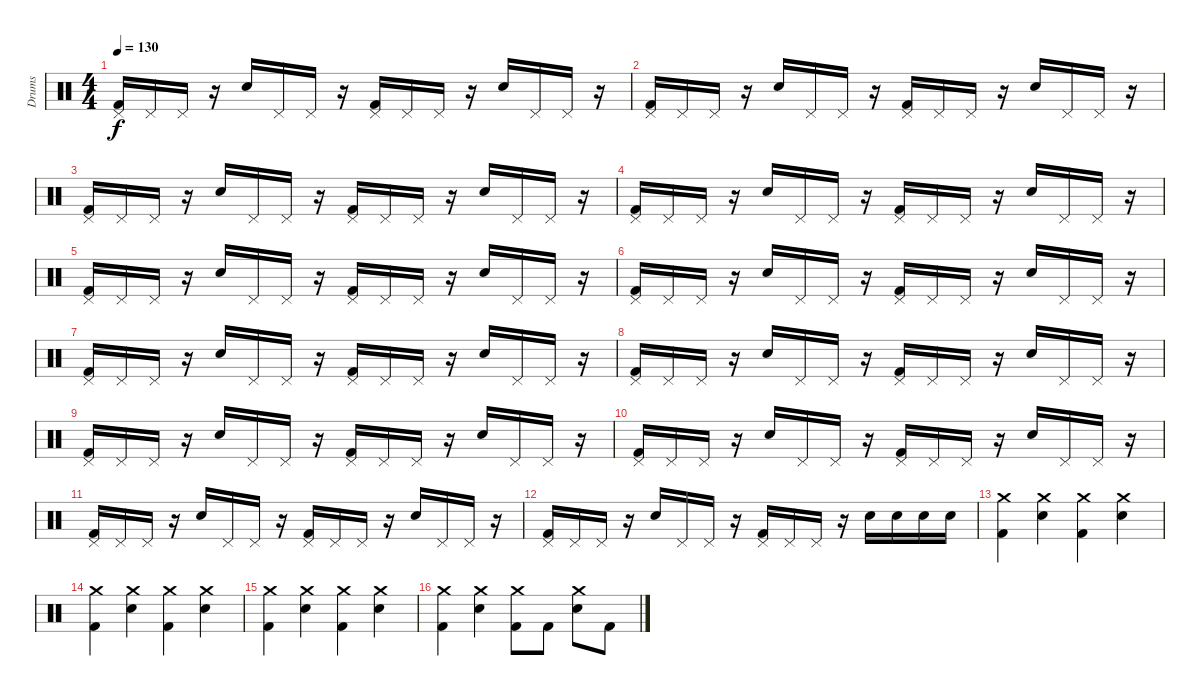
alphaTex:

\track ("Drums" "Drums") {instrument percussion}
\staff {score}
\articulation defaults
\ts (4 4)
\tempo 130
\clef neutral
\ks c
("Pedal Hi-Hat (hit)" "Kick (hit) 2").16{dy f} "Pedal Hi-Hat (hit)".16 "Pedal Hi-Hat (hit)".16 r.16 "Electric Snare (hit)".16 "Pedal Hi-Hat (hit)".16 "Pedal Hi-Hat (hit)".16 r.16 ("Pedal Hi-Hat (hit)" "Kick (hit) 2").16 "Pedal Hi-Hat (hit)".16 "Pedal Hi-Hat (hit)".16 r.16 "Electric Snare (hit)".16 "Pedal Hi-Hat (hit)".16 "Pedal Hi-Hat (hit)".16 r.16 |
("Pedal Hi-Hat (hit)" "Kick (hit) 2").16 "Pedal Hi-Hat (hit)".16 "Pedal Hi-Hat (hit)".16 r.16 "Electric Snare (hit)".16 "Pedal Hi-Hat (hit)".16 "Pedal Hi-Hat (hit)".16 r.16 ("Pedal Hi-Hat (hit)" "Kick (hit) 2").16 "Pedal Hi-Hat (hit)".16 "Pedal Hi-Hat (hit)".16 r.16 "Electric Snare (hit)".16 "Pedal Hi-Hat (hit)".16 "Pedal Hi-Hat (hit)".16 r.16 |
("Pedal Hi-Hat (hit)" "Kick (hit) 2").16 "Pedal Hi-Hat (hit)".16 "Pedal Hi-Hat (hit)".16 r.16 "Electric Snare (hit)".16 "Pedal Hi-Hat (hit)".16 "Pedal Hi-Hat (hit)".16 r.16 ("Pedal Hi-Hat (hit)" "Kick (hit) 2").16 "Pedal Hi-Hat (hit)".16 "Pedal Hi-Hat (hit)".16 r.16 "Electric Snare (hit)".16 "Pedal Hi-Hat (hit)".16 "Pedal Hi-Hat (hit)".16 r.16 |
("Pedal Hi-Hat (hit)" "Kick (hit) 2").16 "Pedal Hi-Hat (hit)".16 "Pedal Hi-Hat (hit)".16 r.16 "Electric Snare (hit)".16 "Pedal Hi-Hat (hit)".16 "Pedal Hi-Hat (hit)".16 r.16 ("Pedal Hi-Hat (hit)" "Kick (hit) 2").16 "Pedal Hi-Hat (hit)".16 "Pedal Hi-Hat (hit)".16 r.16 "Electric Snare (hit)".16 "Pedal Hi-Hat (hit)".16 "Pedal Hi-Hat (hit)".16 r.16 |
("Pedal Hi-Hat (hit)" "Kick (hit) 2").16 "Pedal Hi-Hat (hit)".16 "Pedal Hi-Hat (hit)".16 r.16 "Electric Snare (hit)".16 "Pedal Hi-Hat (hit)".16 "Pedal Hi-Hat (hit)".16 r.16 ("Pedal Hi-Hat (hit)" "Kick (hit) 2").16 "Pedal Hi-Hat (hit)".16 "Pedal Hi-Hat (hit)".16 r.16 "Electric Snare (hit)".16 "Pedal Hi-Hat (hit)".16 "Pedal Hi-Hat (hit)".16 r.16 |
("Pedal Hi-Hat (hit)" "Kick (hit) 2").16 "Pedal Hi-Hat (hit)".16 "Pedal Hi-Hat (hit)".16 r.16 "Electric Snare (hit)".16 "Pedal Hi-Hat (hit)".16 "Pedal Hi-Hat (hit)".16 r.16 ("Pedal Hi-Hat (hit)" "Kick (hit) 2").16 "Pedal Hi-Hat (hit)".16 "Pedal Hi-Hat (hit)".16 r.16 "Electric Snare (hit)".16 "Pedal Hi-Hat (hit)".16 "Pedal Hi-Hat (hit)".16 r.16 |
("Pedal Hi-Hat (hit)" "Kick (hit) 2").16 "Pedal Hi-Hat (hit)".16 "Pedal Hi-Hat (hit)".16 r.16 "Electric Snare (hit)".16 "Pedal Hi-Hat (hit)".16 "Pedal Hi-Hat (hit)".16 r.16 ("Pedal Hi-Hat (hit)" "Kick (hit) 2").16 "Pedal Hi-Hat (hit)".16 "Pedal Hi-Hat (hit)".16 r.16 "Electric Snare (hit)".16 "Pedal Hi-Hat (hit)".16 "Pedal Hi-Hat (hit)".16 r.16 |
("Pedal Hi-Hat (hit)" "Kick (hit) 2").16 "Pedal Hi-Hat (hit)".16 "Pedal Hi-Hat (hit)".16 r.16 "Electric Snare (hit)".16 "Pedal Hi-Hat (hit)".16 "Pedal Hi-Hat (hit)".16 r.16 ("Pedal Hi-Hat (hit)" "Kick (hit) 2").16 "Pedal Hi-Hat (hit)".16 "Pedal Hi-Hat (hit)".16 r.16 "Electric Snare (hit)".16 "Pedal Hi-Hat (hit)".16 "Pedal Hi-Hat (hit)".16 r.16 |
("Pedal Hi-Hat (hit)" "Kick (hit) 2").16 "Pedal Hi-Hat (hit)".16 "Pedal Hi-Hat (hit)".16 r.16 "Electric Snare (hit)".16 "Pedal Hi-Hat (hit)".16 "Pedal Hi-Hat (hit)".16 r.16 ("Pedal Hi-Hat (hit)" "Kick (hit) 2").16 "Pedal Hi-Hat (hit)".16 "Pedal Hi-Hat (hit)".16 r.16 "Electric Snare (hit)".16 "Pedal Hi-Hat (hit)".16 "Pedal Hi-Hat (hit)".16 r.16 |
("Pedal Hi-Hat (hit)" "Kick (hit) 2").16 "Pedal Hi-Hat (hit)".16 "Pedal Hi-Hat (hit)".16 r.16 "Electric Snare (hit)".16 "Pedal Hi-Hat (hit)".16 "Pedal Hi-Hat (hit)".16 r.16 ("Pedal Hi-Hat (hit)" "Kick (hit) 2").16 "Pedal Hi-Hat (hit)".16 "Pedal Hi-Hat (hit)".16 r.16 "Electric Snare (hit)".16 "Pedal Hi-Hat (hit)".16 "Pedal Hi-Hat (hit)".16 r.16 |
("Pedal Hi-Hat (hit)" "Kick (hit) 2").16 "Pedal Hi-Hat (hit)".16 "Pedal Hi-Hat (hit)".16 r.16 "Electric Snare (hit)".16 "Pedal Hi-Hat (hit)".16 "Pedal Hi-Hat (hit)".16 r.16 ("Pedal Hi-Hat (hit)" "Kick (hit) 2").16 "Pedal Hi-Hat (hit)".16 "Pedal Hi-Hat (hit)".16 r.16 "Electric Snare (hit)".16 "Pedal Hi-Hat (hit)".16 "Pedal Hi-Hat (hit)".16 r.16 |
("Pedal Hi-Hat (hit)" "Kick (hit) 2").16 "Pedal Hi-Hat (hit)".16 "Pedal Hi-Hat (hit)".16 r.16 "Electric Snare (hit)".16 "Pedal Hi-Hat (hit)".16 "Pedal Hi-Hat (hit)".16 r.16 ("Pedal Hi-Hat (hit)" "Kick (hit) 2").16 "Pedal Hi-Hat (hit)".16 "Pedal Hi-Hat (hit)".16 r.16 "Electric Snare (hit)".16 "Electric Snare (hit)".16 "Electric Snare (hit)".16 "Electric Snare (hit)".16 |
("Crash medium (hit)" "Kick (hit) 2").4 ("Crash medium (hit)" "Electric Snare (hit)").4 ("Crash medium (hit)" "Kick (hit) 2").4 ("Crash medium (hit)" "Electric Snare (hit)").4 |
("Crash medium (hit)" "Kick (hit) 2").4 ("Crash medium (hit)" "Electric Snare (hit)").4 ("Crash medium (hit)" "Kick (hit) 2").4 ("Crash medium (hit)" "Electric Snare (hit)").4 |
("Crash medium (hit)" "Kick (hit) 2").4 ("Crash medium (hit)" "Electric Snare (hit)").4 ("Crash medium (hit)" "Kick (hit) 2").4 ("Crash medium (hit)" "Electric Snare (hit)").4 |
("Crash medium (hit)" "Kick (hit) 2").4 ("Crash medium (hit)" "Electric Snare (hit)").4 ("Crash medium (hit)" "Kick (hit) 2").8 "Kick (hit) 2".8 ("Crash medium (hit)" "Electric Snare (hit)").8 "Kick (hit) 2".8
